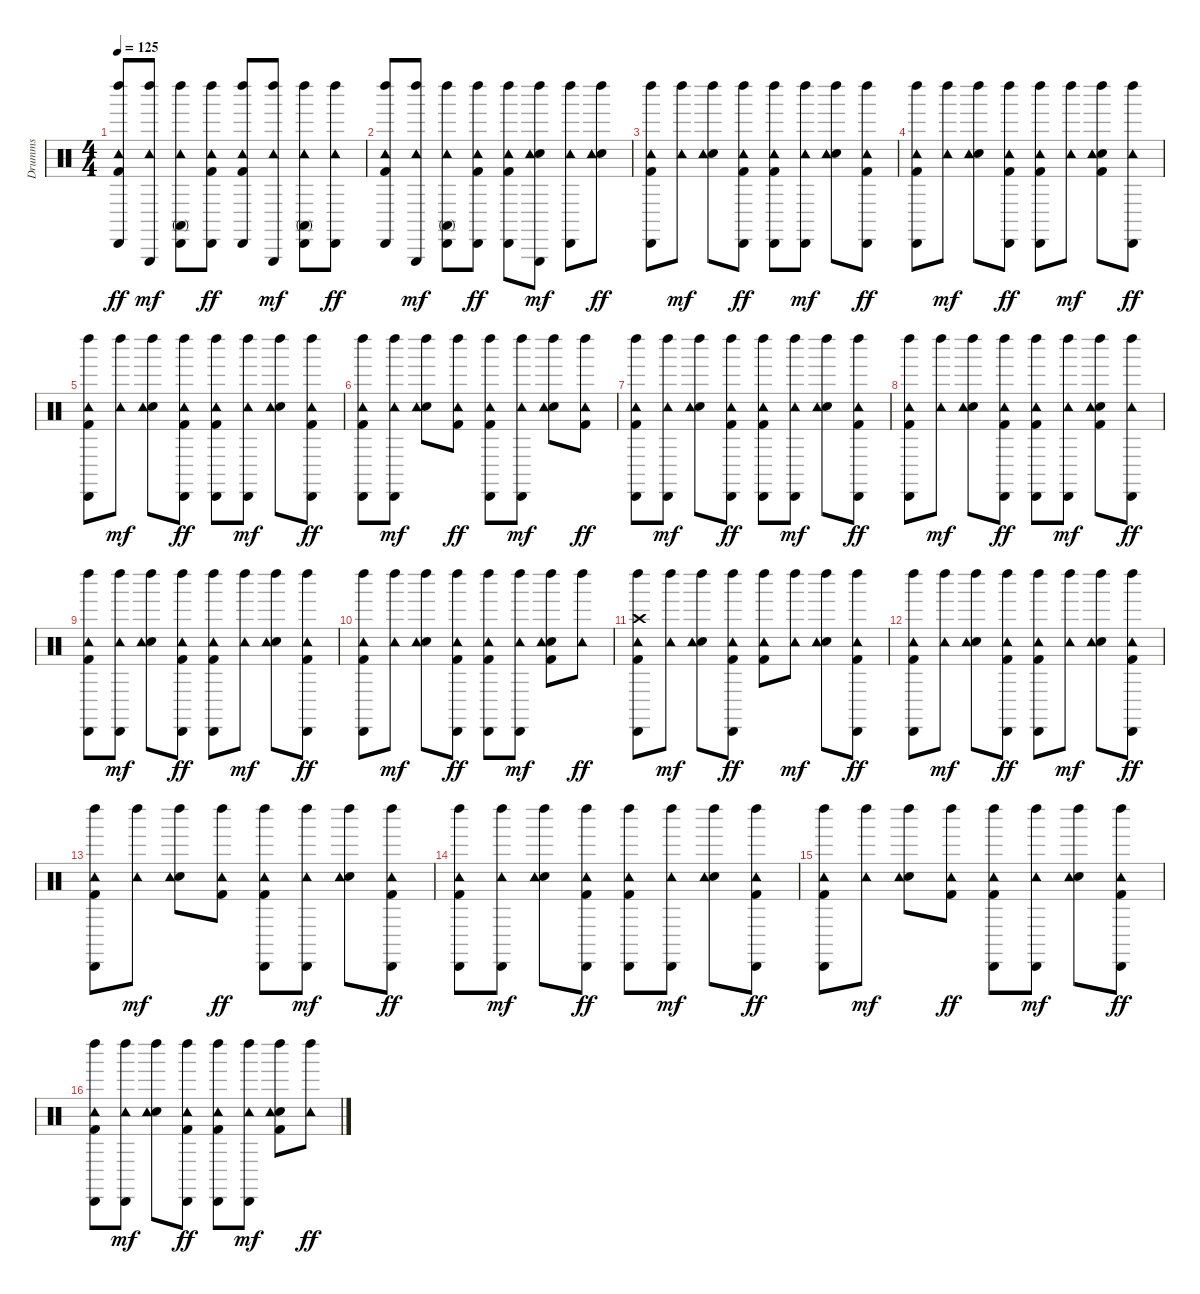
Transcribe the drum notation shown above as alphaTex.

\track ("Drumms" "Drumms") {instrument percussion}
\staff {score}
\articulation defaults
\ts (4 4)
\tempo 125
\clef neutral
\ks c
("Kick (hit) 2" "Tambourine (hit)" "Cabasa (hit)" "Left Maraca (hit)").8{dy ff} ("Tambourine (hit)" "Left Maraca (hit)" "Triangle (hit)").8{dy mf} ("Conga high (mute)" "Tambourine (hit)" "Cabasa (hit)" "Left Maraca (hit)").8 ("Kick (hit) 2" "Tambourine (hit)" "Cabasa (hit)" "Left Maraca (hit)").8{dy ff} ("Kick (hit) 2" "Tambourine (hit)" "Cabasa (hit)" "Left Maraca (hit)").8 ("Tambourine (hit)" "Left Maraca (hit)" "Triangle (hit)").8{dy mf} ("Conga high (mute)" "Tambourine (hit)" "Cabasa (hit)" "Left Maraca (hit)").8 ("Tambourine (hit)" "Cabasa (hit)" "Left Maraca (hit)").8{dy ff} |
("Kick (hit) 2" "Tambourine (hit)" "Cabasa (hit)" "Left Maraca (hit)").8 ("Tambourine (hit)" "Left Maraca (hit)" "Triangle (hit)").8{dy mf} ("Conga high (mute)" "Tambourine (hit)" "Cabasa (hit)" "Left Maraca (hit)").8 ("Kick (hit) 2" "Tambourine (hit)" "Cabasa (hit)" "Left Maraca (hit)").8{dy ff} ("Kick (hit) 2" "Tambourine (hit)" "Cabasa (hit)" "Left Maraca (hit)").8 ("Snare (hit) 2" "Tambourine (hit)" "Left Maraca (hit)" "Triangle (hit)").8{dy mf} ("Tambourine (hit)" "Cabasa (hit)" "Left Maraca (hit)").8 ("Snare (hit) 2" "Tambourine (hit)" "Left Maraca (hit)").8{dy ff} |
("Kick (hit) 2" "Tambourine (hit)" "Cabasa (hit)" "Left Maraca (hit)").8 ("Tambourine (hit)" "Left Maraca (hit)").8{dy mf} ("Snare (hit) 2" "Tambourine (hit)" "Left Maraca (hit)").8 ("Kick (hit) 2" "Tambourine (hit)" "Cabasa (hit)" "Left Maraca (hit)").8{dy ff} ("Kick (hit) 2" "Tambourine (hit)" "Cabasa (hit)" "Left Maraca (hit)").8 ("Tambourine (hit)" "Cabasa (hit)" "Left Maraca (hit)").8{dy mf} ("Snare (hit) 2" "Tambourine (hit)" "Left Maraca (hit)").8 ("Kick (hit) 2" "Tambourine (hit)" "Cabasa (hit)" "Left Maraca (hit)").8{dy ff} |
("Kick (hit) 2" "Tambourine (hit)" "Cabasa (hit)" "Left Maraca (hit)").8 ("Tambourine (hit)" "Left Maraca (hit)").8{dy mf} ("Snare (hit) 2" "Tambourine (hit)" "Left Maraca (hit)").8 ("Kick (hit) 2" "Tambourine (hit)" "Cabasa (hit)" "Left Maraca (hit)").8{dy ff} ("Kick (hit) 2" "Tambourine (hit)" "Cabasa (hit)" "Left Maraca (hit)").8 ("Tambourine (hit)" "Left Maraca (hit)").8{dy mf} ("Kick (hit) 2" "Snare (hit) 2" "Tambourine (hit)" "Left Maraca (hit)").8 ("Tambourine (hit)" "Cabasa (hit)" "Left Maraca (hit)").8{dy ff} |
("Kick (hit) 2" "Tambourine (hit)" "Cabasa (hit)" "Left Maraca (hit)").8 ("Tambourine (hit)" "Left Maraca (hit)").8{dy mf} ("Snare (hit) 2" "Tambourine (hit)" "Left Maraca (hit)").8 ("Kick (hit) 2" "Tambourine (hit)" "Cabasa (hit)" "Left Maraca (hit)").8{dy ff} ("Kick (hit) 2" "Tambourine (hit)" "Cabasa (hit)" "Left Maraca (hit)").8 ("Tambourine (hit)" "Cabasa (hit)" "Left Maraca (hit)").8{dy mf} ("Snare (hit) 2" "Tambourine (hit)" "Left Maraca (hit)").8 ("Kick (hit) 2" "Tambourine (hit)" "Cabasa (hit)" "Left Maraca (hit)").8{dy ff} |
("Kick (hit) 2" "Tambourine (hit)" "Cabasa (hit)" "Left Maraca (hit)").8 ("Tambourine (hit)" "Cabasa (hit)" "Left Maraca (hit)").8{dy mf} ("Snare (hit) 2" "Tambourine (hit)" "Left Maraca (hit)").8 ("Kick (hit) 2" "Tambourine (hit)" "Left Maraca (hit)").8{dy ff} ("Kick (hit) 2" "Tambourine (hit)" "Cabasa (hit)" "Left Maraca (hit)").8 ("Tambourine (hit)" "Cabasa (hit)" "Left Maraca (hit)").8{dy mf} ("Snare (hit) 2" "Tambourine (hit)" "Left Maraca (hit)").8 ("Kick (hit) 2" "Tambourine (hit)" "Left Maraca (hit)").8{dy ff} |
("Kick (hit) 2" "Tambourine (hit)" "Cabasa (hit)" "Left Maraca (hit)").8 ("Tambourine (hit)" "Left Maraca (hit)" "Cabasa (hit)").8{dy mf} ("Snare (hit) 2" "Tambourine (hit)" "Left Maraca (hit)").8 ("Kick (hit) 2" "Tambourine (hit)" "Left Maraca (hit)" "Cabasa (hit)").8{dy ff} ("Kick (hit) 2" "Tambourine (hit)" "Cabasa (hit)" "Left Maraca (hit)").8 ("Tambourine (hit)" "Cabasa (hit)" "Left Maraca (hit)").8{dy mf} ("Snare (hit) 2" "Tambourine (hit)" "Left Maraca (hit)").8 ("Kick (hit) 2" "Tambourine (hit)" "Cabasa (hit)" "Left Maraca (hit)").8{dy ff} |
("Kick (hit) 2" "Tambourine (hit)" "Cabasa (hit)" "Left Maraca (hit)").8 ("Tambourine (hit)" "Left Maraca (hit)").8{dy mf} ("Snare (hit) 2" "Tambourine (hit)" "Left Maraca (hit)").8 ("Kick (hit) 2" "Tambourine (hit)" "Cabasa (hit)" "Left Maraca (hit)").8{dy ff} ("Kick (hit) 2" "Tambourine (hit)" "Cabasa (hit)" "Left Maraca (hit)").8 ("Tambourine (hit)" "Cabasa (hit)" "Left Maraca (hit)").8{dy mf} ("Kick (hit) 2" "Snare (hit) 2" "Tambourine (hit)" "Left Maraca (hit)").8 ("Tambourine (hit)" "Cabasa (hit)" "Left Maraca (hit)").8{dy ff} |
("Kick (hit) 2" "Tambourine (hit)" "Cabasa (hit)" "Left Maraca (hit)").8 ("Tambourine (hit)" "Left Maraca (hit)" "Cabasa (hit)").8{dy mf} ("Snare (hit) 2" "Tambourine (hit)" "Left Maraca (hit)").8 ("Kick (hit) 2" "Tambourine (hit)" "Left Maraca (hit)" "Cabasa (hit)").8{dy ff} ("Kick (hit) 2" "Tambourine (hit)" "Cabasa (hit)" "Left Maraca (hit)").8 ("Tambourine (hit)" "Left Maraca (hit)").8{dy mf} ("Snare (hit) 2" "Tambourine (hit)" "Left Maraca (hit)").8 ("Kick (hit) 2" "Tambourine (hit)" "Cabasa (hit)" "Left Maraca (hit)").8{dy ff} |
("Kick (hit) 2" "Tambourine (hit)" "Cabasa (hit)" "Left Maraca (hit)").8 ("Tambourine (hit)" "Left Maraca (hit)").8{dy mf} ("Snare (hit) 2" "Tambourine (hit)" "Left Maraca (hit)").8 ("Kick (hit) 2" "Tambourine (hit)" "Cabasa (hit)" "Left Maraca (hit)").8{dy ff} ("Kick (hit) 2" "Tambourine (hit)" "Cabasa (hit)" "Left Maraca (hit)").8 ("Tambourine (hit)" "Cabasa (hit)" "Left Maraca (hit)").8{dy mf} ("Kick (hit) 2" "Snare (hit) 2" "Tambourine (hit)" "Left Maraca (hit)").8 ("Tambourine (hit)" "Left Maraca (hit)").8{dy ff} |
("Kick (hit) 2" "Crash high (hit)" "Tambourine (hit)" "Cabasa (hit)" "Left Maraca (hit)").8 ("Tambourine (hit)" "Left Maraca (hit)").8{dy mf} ("Snare (hit) 2" "Tambourine (hit)" "Left Maraca (hit)").8 ("Kick (hit) 2" "Tambourine (hit)" "Cabasa (hit)" "Left Maraca (hit)").8{dy ff} ("Kick (hit) 2" "Tambourine (hit)" "Left Maraca (hit)").8 ("Tambourine (hit)" "Left Maraca (hit)").8{dy mf} ("Snare (hit) 2" "Tambourine (hit)" "Left Maraca (hit)").8 ("Kick (hit) 2" "Tambourine (hit)" "Cabasa (hit)" "Left Maraca (hit)").8{dy ff} |
("Kick (hit) 2" "Tambourine (hit)" "Cabasa (hit)" "Left Maraca (hit)").8 ("Tambourine (hit)" "Left Maraca (hit)").8{dy mf} ("Snare (hit) 2" "Tambourine (hit)" "Left Maraca (hit)").8 ("Kick (hit) 2" "Tambourine (hit)" "Cabasa (hit)" "Left Maraca (hit)").8{dy ff} ("Kick (hit) 2" "Tambourine (hit)" "Cabasa (hit)" "Left Maraca (hit)").8 ("Tambourine (hit)" "Left Maraca (hit)").8{dy mf} ("Snare (hit) 2" "Tambourine (hit)" "Left Maraca (hit)").8 ("Kick (hit) 2" "Tambourine (hit)" "Cabasa (hit)" "Left Maraca (hit)").8{dy ff} |
("Kick (hit) 2" "Tambourine (hit)" "Cabasa (hit)" "Left Maraca (hit)").8 ("Tambourine (hit)" "Left Maraca (hit)").8{dy mf} ("Snare (hit) 2" "Tambourine (hit)" "Left Maraca (hit)").8 ("Kick (hit) 2" "Tambourine (hit)" "Left Maraca (hit)").8{dy ff} ("Kick (hit) 2" "Tambourine (hit)" "Cabasa (hit)" "Left Maraca (hit)").8 ("Tambourine (hit)" "Cabasa (hit)" "Left Maraca (hit)").8{dy mf} ("Snare (hit) 2" "Tambourine (hit)" "Left Maraca (hit)").8 ("Kick (hit) 2" "Tambourine (hit)" "Cabasa (hit)" "Left Maraca (hit)").8{dy ff} |
("Kick (hit) 2" "Tambourine (hit)" "Cabasa (hit)" "Left Maraca (hit)").8 ("Tambourine (hit)" "Left Maraca (hit)" "Cabasa (hit)").8{dy mf} ("Snare (hit) 2" "Tambourine (hit)" "Left Maraca (hit)").8 ("Kick (hit) 2" "Tambourine (hit)" "Left Maraca (hit)" "Cabasa (hit)").8{dy ff} ("Kick (hit) 2" "Tambourine (hit)" "Cabasa (hit)" "Left Maraca (hit)").8 ("Tambourine (hit)" "Cabasa (hit)" "Left Maraca (hit)").8{dy mf} ("Snare (hit) 2" "Tambourine (hit)" "Left Maraca (hit)").8 ("Kick (hit) 2" "Tambourine (hit)" "Cabasa (hit)" "Left Maraca (hit)").8{dy ff} |
("Kick (hit) 2" "Tambourine (hit)" "Cabasa (hit)" "Left Maraca (hit)").8 ("Tambourine (hit)" "Left Maraca (hit)").8{dy mf} ("Snare (hit) 2" "Tambourine (hit)" "Left Maraca (hit)").8 ("Kick (hit) 2" "Tambourine (hit)" "Left Maraca (hit)").8{dy ff} ("Kick (hit) 2" "Tambourine (hit)" "Cabasa (hit)" "Left Maraca (hit)").8 ("Tambourine (hit)" "Cabasa (hit)" "Left Maraca (hit)").8{dy mf} ("Snare (hit) 2" "Tambourine (hit)" "Left Maraca (hit)").8 ("Kick (hit) 2" "Tambourine (hit)" "Cabasa (hit)" "Left Maraca (hit)").8{dy ff} |
("Kick (hit) 2" "Tambourine (hit)" "Cabasa (hit)" "Left Maraca (hit)").8 ("Tambourine (hit)" "Cabasa (hit)" "Left Maraca (hit)").8{dy mf} ("Snare (hit) 2" "Tambourine (hit)" "Left Maraca (hit)").8 ("Kick (hit) 2" "Tambourine (hit)" "Cabasa (hit)" "Left Maraca (hit)").8{dy ff} ("Kick (hit) 2" "Tambourine (hit)" "Cabasa (hit)" "Left Maraca (hit)").8 ("Tambourine (hit)" "Cabasa (hit)" "Left Maraca (hit)").8{dy mf} ("Kick (hit) 2" "Snare (hit) 2" "Tambourine (hit)" "Left Maraca (hit)").8 ("Tambourine (hit)" "Left Maraca (hit)").8{dy ff}
